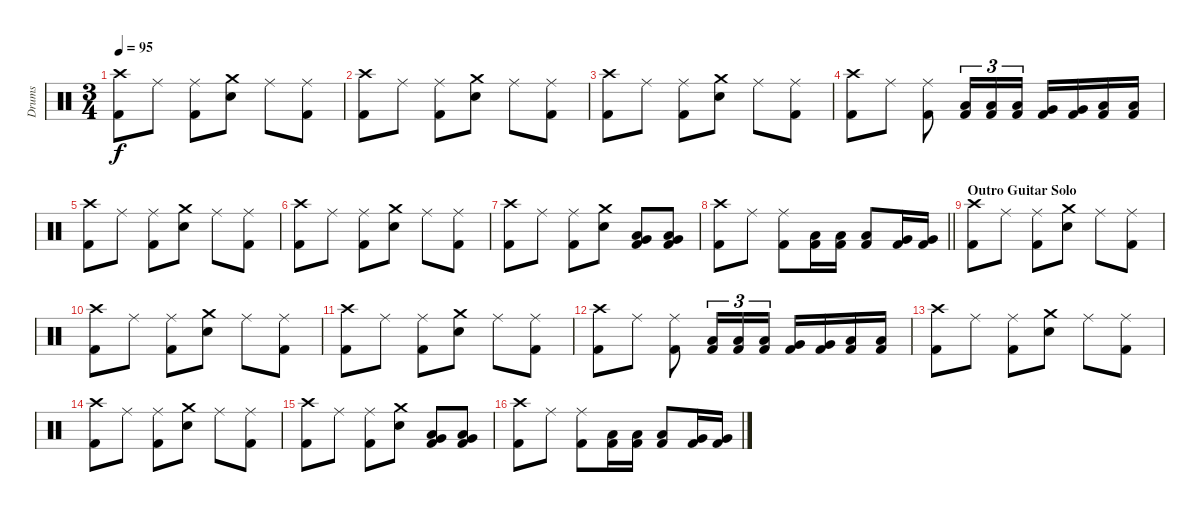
\track ("Drums" "Drums") {instrument percussion}
\staff {score}
\articulation defaults
\ts (3 4)
\tempo 95
\clef neutral
\ks c
("Crash high (hit)" "Kick (hit) 2").8{dy f} "Ride (middle)".8 ("Ride (middle)" "Kick (hit) 2").8 ("Crash medium (hit)" "Electric Snare (hit)").8 "Ride (middle)".8 ("Ride (middle)" "Kick (hit) 2").8 |
("Crash high (hit)" "Kick (hit) 2").8 "Ride (middle)".8 ("Ride (middle)" "Kick (hit) 2").8 ("Crash medium (hit)" "Electric Snare (hit)").8 "Ride (middle)".8 ("Ride (middle)" "Kick (hit) 2").8 |
("Crash high (hit)" "Kick (hit) 2").8 "Ride (middle)".8 ("Ride (middle)" "Kick (hit) 2").8 ("Crash medium (hit)" "Electric Snare (hit)").8 "Ride (middle)".8 ("Ride (middle)" "Kick (hit) 2").8 |
("Crash high (hit)" "Kick (hit) 2").8 "Ride (middle)".8 ("Ride (middle)" "Kick (hit) 2").8 ("Low Tom (hit)" "Kick (hit) 2").16{tu (3 2)} ("Low Tom (hit)" "Kick (hit) 2").16{tu (3 2)} ("Low Tom (hit)" "Kick (hit) 2").16{tu (3 2)} ("Very Low Tom (hit)" "Kick (hit) 2").16 ("Very Low Tom (hit)" "Kick (hit) 2").16 ("Low Floor Tom (hit)" "Kick (hit) 2").16 ("Low Floor Tom (hit)" "Kick (hit) 2").16 |
("Crash high (hit)" "Kick (hit) 2").8 "Ride (middle)".8 ("Ride (middle)" "Kick (hit) 2").8 ("Crash medium (hit)" "Electric Snare (hit)").8 "Ride (middle)".8 ("Ride (middle)" "Kick (hit) 2").8 |
("Crash high (hit)" "Kick (hit) 2").8 "Ride (middle)".8 ("Ride (middle)" "Kick (hit) 2").8 ("Crash medium (hit)" "Electric Snare (hit)").8 "Ride (middle)".8 ("Ride (middle)" "Kick (hit) 2").8 |
("Crash high (hit)" "Kick (hit) 2").8 "Ride (middle)".8 ("Ride (middle)" "Kick (hit) 2").8 ("Crash medium (hit)" "Electric Snare (hit)").8 ("Low Tom (hit)" "Very Low Tom (hit)" "Kick (hit) 2").8 ("Low Tom (hit)" "Very Low Tom (hit)" "Kick (hit) 2").8 |
\barLineRight lightlight
("Crash high (hit)" "Kick (hit) 2").8 "Ride (middle)".8 ("Ride (middle)" "Kick (hit) 2").8 ("Low Tom (hit)" "Kick (hit) 2").16 ("Low Tom (hit)" "Kick (hit) 2").16 ("Low Tom (hit)" "Kick (hit) 2").8 ("Very Low Tom (hit)" "Kick (hit) 2").16 ("Very Low Tom (hit)" "Kick (hit) 2").16 |
\section ("" "Outro Guitar Solo")
("Crash high (hit)" "Kick (hit) 2").8 "Ride (middle)".8 ("Ride (middle)" "Kick (hit) 2").8 ("Crash medium (hit)" "Electric Snare (hit)").8 "Ride (middle)".8 ("Ride (middle)" "Kick (hit) 2").8 |
("Crash high (hit)" "Kick (hit) 2").8 "Ride (middle)".8 ("Ride (middle)" "Kick (hit) 2").8 ("Crash medium (hit)" "Electric Snare (hit)").8 "Ride (middle)".8 ("Ride (middle)" "Kick (hit) 2").8 |
("Crash high (hit)" "Kick (hit) 2").8 "Ride (middle)".8 ("Ride (middle)" "Kick (hit) 2").8 ("Crash medium (hit)" "Electric Snare (hit)").8 "Ride (middle)".8 ("Ride (middle)" "Kick (hit) 2").8 |
("Crash high (hit)" "Kick (hit) 2").8 "Ride (middle)".8 ("Ride (middle)" "Kick (hit) 2").8 ("Low Tom (hit)" "Kick (hit) 2").16{tu (3 2)} ("Low Tom (hit)" "Kick (hit) 2").16{tu (3 2)} ("Low Tom (hit)" "Kick (hit) 2").16{tu (3 2)} ("Very Low Tom (hit)" "Kick (hit) 2").16 ("Very Low Tom (hit)" "Kick (hit) 2").16 ("Low Floor Tom (hit)" "Kick (hit) 2").16 ("Low Floor Tom (hit)" "Kick (hit) 2").16 |
("Crash high (hit)" "Kick (hit) 2").8 "Ride (middle)".8 ("Ride (middle)" "Kick (hit) 2").8 ("Crash medium (hit)" "Electric Snare (hit)").8 "Ride (middle)".8 ("Ride (middle)" "Kick (hit) 2").8 |
("Crash high (hit)" "Kick (hit) 2").8 "Ride (middle)".8 ("Ride (middle)" "Kick (hit) 2").8 ("Crash medium (hit)" "Electric Snare (hit)").8 "Ride (middle)".8 ("Ride (middle)" "Kick (hit) 2").8 |
("Crash high (hit)" "Kick (hit) 2").8 "Ride (middle)".8 ("Ride (middle)" "Kick (hit) 2").8 ("Crash medium (hit)" "Electric Snare (hit)").8 ("Low Tom (hit)" "Very Low Tom (hit)" "Kick (hit) 2").8 ("Low Tom (hit)" "Very Low Tom (hit)" "Kick (hit) 2").8 |
("Crash high (hit)" "Kick (hit) 2").8 "Ride (middle)".8 ("Ride (middle)" "Kick (hit) 2").8 ("Low Tom (hit)" "Kick (hit) 2").16 ("Low Tom (hit)" "Kick (hit) 2").16 ("Low Tom (hit)" "Kick (hit) 2").8 ("Very Low Tom (hit)" "Kick (hit) 2").16 ("Very Low Tom (hit)" "Kick (hit) 2").16
